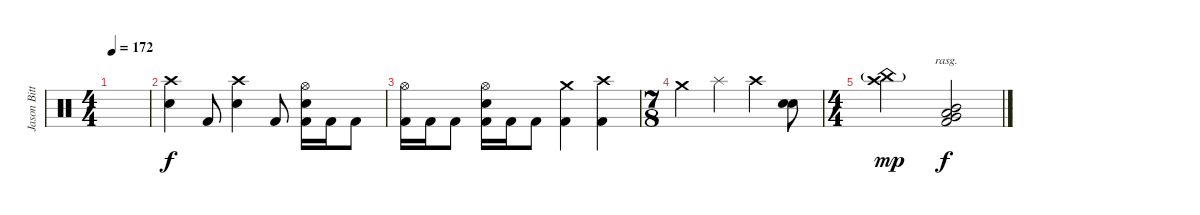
\track ("Jason Bittner" "Jason Bitt") {instrument percussion}
\staff {score}
\articulation defaults
\ts (4 4)
\tempo 172
\clef neutral
\ks c
|
("Crash high (hit)" "Electric Snare (hit)").4 "Kick (hit) 2".8 ("Crash high (hit)" "Electric Snare (hit)").4 "Kick (hit) 2".8 ("Hi-Hat (open)" "Electric Snare (hit)" "Kick (hit) 2").16 "Kick (hit) 2".16 "Kick (hit) 2".8 |
("Hi-Hat (open)" "Kick (hit) 2").16 "Kick (hit) 2".16 "Kick (hit) 2".8 ("Hi-Hat (open)" "Electric Snare (hit)" "Kick (hit) 2").16 "Kick (hit) 2".16 "Kick (hit) 2".8 ("Crash medium (hit)" "Kick (hit) 2").4 ("Crash high (hit)" "Kick (hit) 2").4 |
\ts (7 8)
"Crash medium (hit)".4 "Splash (hit)".4 "Crash high (hit)".4 ("Electric Snare (hit)" "Electric Snare (hit)").8{bu 240} |
\ts (4 4)
("Crash high (hit)" "China (hit)"{g}).2{dy mp} ("Mid Tom (hit)" "Low Tom (hit)" "Very Low Tom (hit)" "Kick (hit) 2").2{bu 480 rasg ii dy f}
